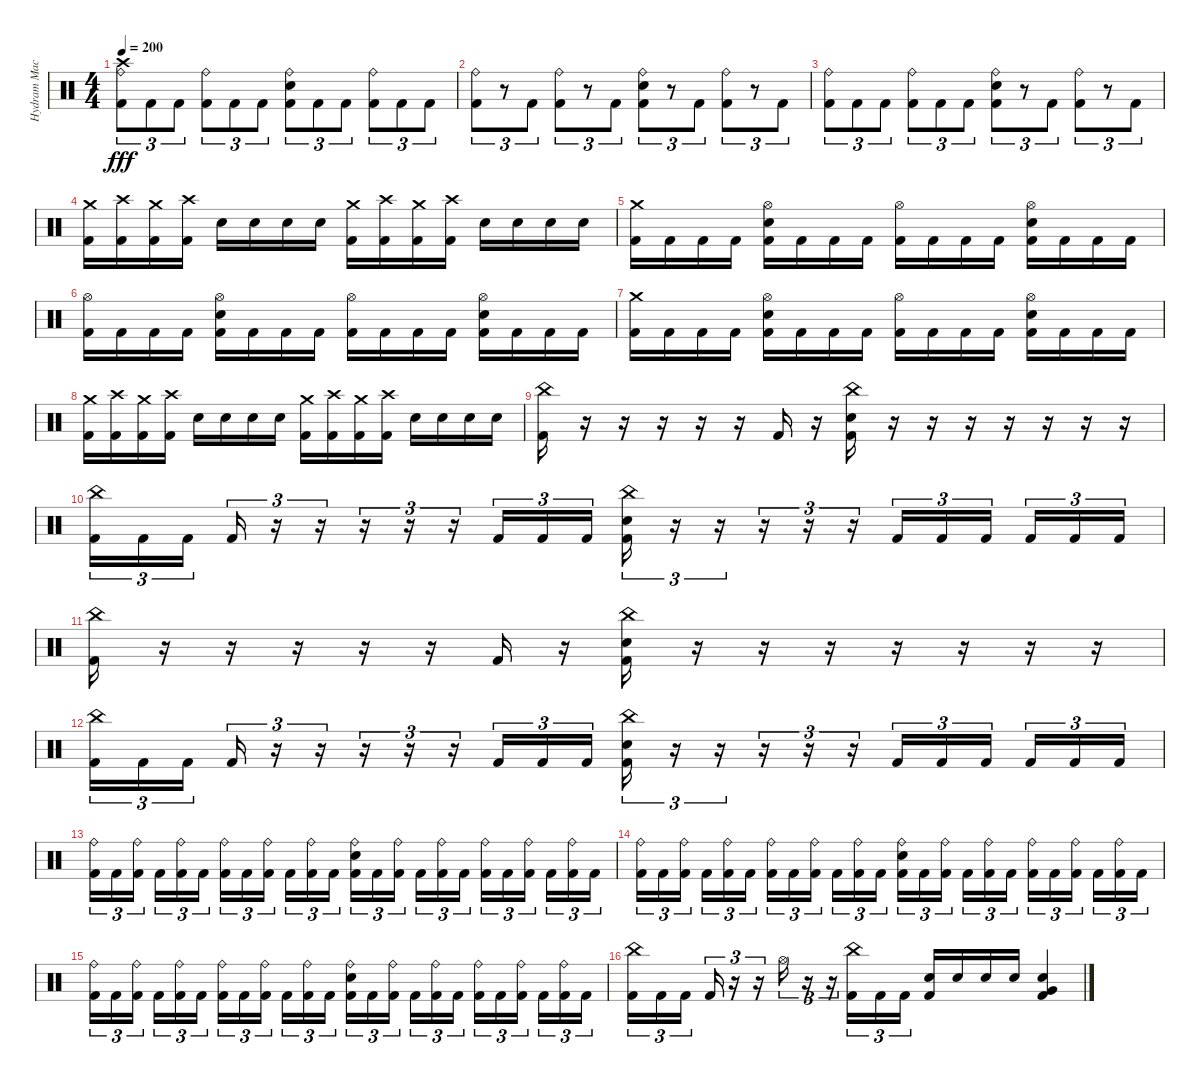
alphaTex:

\track ("Hydram Machine" "Hydram Mac") {instrument percussion}
\staff {score}
\articulation defaults
\ts (4 4)
\tempo 200
\clef neutral
\ks c
("Ride (bell)" "Crash high (hit)" "Kick (hit) 2").8{tu (3 2) dy fff} "Kick (hit) 2".8{tu (3 2)} "Kick (hit) 2".8{tu (3 2)} ("Ride (bell)" "Kick (hit) 2").8{tu (3 2)} "Kick (hit) 2".8{tu (3 2)} "Kick (hit) 2".8{tu (3 2)} ("Ride (bell)" "Electric Snare (hit)" "Kick (hit) 2").8{tu (3 2)} "Kick (hit) 2".8{tu (3 2)} "Kick (hit) 2".8{tu (3 2)} ("Ride (bell)" "Kick (hit) 2").8{tu (3 2)} "Kick (hit) 2".8{tu (3 2)} "Kick (hit) 2".8{tu (3 2)} |
("Ride (bell)" "Kick (hit) 2").8{tu (3 2)} r.8{tu (3 2)} "Kick (hit) 2".8{tu (3 2)} ("Ride (bell)" "Kick (hit) 2").8{tu (3 2)} r.8{tu (3 2)} "Kick (hit) 2".8{tu (3 2)} ("Ride (bell)" "Electric Snare (hit)" "Kick (hit) 2").8{tu (3 2)} r.8{tu (3 2)} "Kick (hit) 2".8{tu (3 2)} ("Ride (bell)" "Kick (hit) 2").8{tu (3 2)} r.8{tu (3 2)} "Kick (hit) 2".8{tu (3 2)} |
("Ride (bell)" "Kick (hit) 2").8{tu (3 2)} "Kick (hit) 2".8{tu (3 2)} "Kick (hit) 2".8{tu (3 2)} ("Ride (bell)" "Kick (hit) 2").8{tu (3 2)} "Kick (hit) 2".8{tu (3 2)} "Kick (hit) 2".8{tu (3 2)} ("Ride (bell)" "Electric Snare (hit)" "Kick (hit) 2").8{tu (3 2)} r.8{tu (3 2)} "Kick (hit) 2".8{tu (3 2)} ("Ride (bell)" "Kick (hit) 2").8{tu (3 2)} r.8{tu (3 2)} "Kick (hit) 2".8{tu (3 2)} |
("Crash medium (hit)" "Kick (hit) 2").16 ("Crash high (hit)" "Kick (hit) 2").16 ("Crash medium (hit)" "Kick (hit) 2").16 ("Crash high (hit)" "Kick (hit) 2").16 "Electric Snare (hit)".16 "Electric Snare (hit)".16 "Electric Snare (hit)".16 "Electric Snare (hit)".16 ("Crash medium (hit)" "Kick (hit) 2").16 ("Crash high (hit)" "Kick (hit) 2").16 ("Crash medium (hit)" "Kick (hit) 2").16 ("Crash high (hit)" "Kick (hit) 2").16 "Electric Snare (hit)".16 "Electric Snare (hit)".16 "Electric Snare (hit)".16 "Electric Snare (hit)".16 |
("Crash medium (hit)" "Kick (hit) 2").16 "Kick (hit) 2".16 "Kick (hit) 2".16 "Kick (hit) 2".16 ("Hi-Hat (open)" "Electric Snare (hit)" "Kick (hit) 2").16 "Kick (hit) 2".16 "Kick (hit) 2".16 "Kick (hit) 2".16 ("Hi-Hat (open)" "Kick (hit) 2").16 "Kick (hit) 2".16 "Kick (hit) 2".16 "Kick (hit) 2".16 ("Hi-Hat (open)" "Electric Snare (hit)" "Kick (hit) 2").16 "Kick (hit) 2".16 "Kick (hit) 2".16 "Kick (hit) 2".16 |
("Hi-Hat (open)" "Kick (hit) 2").16 "Kick (hit) 2".16 "Kick (hit) 2".16 "Kick (hit) 2".16 ("Hi-Hat (open)" "Electric Snare (hit)" "Kick (hit) 2").16 "Kick (hit) 2".16 "Kick (hit) 2".16 "Kick (hit) 2".16 ("Hi-Hat (open)" "Kick (hit) 2").16 "Kick (hit) 2".16 "Kick (hit) 2".16 "Kick (hit) 2".16 ("Hi-Hat (open)" "Electric Snare (hit)" "Kick (hit) 2").16 "Kick (hit) 2".16 "Kick (hit) 2".16 "Kick (hit) 2".16 |
("Crash medium (hit)" "Kick (hit) 2").16 "Kick (hit) 2".16 "Kick (hit) 2".16 "Kick (hit) 2".16 ("Hi-Hat (open)" "Electric Snare (hit)" "Kick (hit) 2").16 "Kick (hit) 2".16 "Kick (hit) 2".16 "Kick (hit) 2".16 ("Hi-Hat (open)" "Kick (hit) 2").16 "Kick (hit) 2".16 "Kick (hit) 2".16 "Kick (hit) 2".16 ("Hi-Hat (open)" "Electric Snare (hit)" "Kick (hit) 2").16 "Kick (hit) 2".16 "Kick (hit) 2".16 "Kick (hit) 2".16 |
("Crash medium (hit)" "Kick (hit) 2").16 ("Crash high (hit)" "Kick (hit) 2").16 ("Crash medium (hit)" "Kick (hit) 2").16 ("Crash high (hit)" "Kick (hit) 2").16 "Electric Snare (hit)".16 "Electric Snare (hit)".16 "Electric Snare (hit)".16 "Electric Snare (hit)".16 ("Crash medium (hit)" "Kick (hit) 2").16 ("Crash high (hit)" "Kick (hit) 2").16 ("Crash medium (hit)" "Kick (hit) 2").16 ("Crash high (hit)" "Kick (hit) 2").16 "Electric Snare (hit)".16 "Electric Snare (hit)".16 "Electric Snare (hit)".16 "Electric Snare (hit)".16 |
("China (hit)" "Kick (hit) 2").16 r.16 r.16 r.16 r.16 r.16 "Kick (hit) 2".16 r.16 ("China (hit)" "Electric Snare (hit)" "Kick (hit) 2").16 r.16 r.16 r.16 r.16 r.16 r.16 r.16 |
("China (hit)" "Kick (hit) 2").16{tu (3 2)} "Kick (hit) 2".16{tu (3 2)} "Kick (hit) 2".16{tu (3 2) beam splitsecondary} "Kick (hit) 2".16{tu (3 2)} r.16{tu (3 2)} r.16{tu (3 2)} r.16{tu (3 2)} r.16{tu (3 2)} r.16{tu (3 2)} "Kick (hit) 2".16{tu (3 2)} "Kick (hit) 2".16{tu (3 2)} "Kick (hit) 2".16{tu (3 2)} ("China (hit)" "Electric Snare (hit)" "Kick (hit) 2").16{tu (3 2)} r.16{tu (3 2)} r.16{tu (3 2)} r.16{tu (3 2)} r.16{tu (3 2)} r.16{tu (3 2)} "Kick (hit) 2".16{tu (3 2)} "Kick (hit) 2".16{tu (3 2)} "Kick (hit) 2".16{tu (3 2) beam splitsecondary} "Kick (hit) 2".16{tu (3 2)} "Kick (hit) 2".16{tu (3 2)} "Kick (hit) 2".16{tu (3 2)} |
("China (hit)" "Kick (hit) 2").16 r.16 r.16 r.16 r.16 r.16 "Kick (hit) 2".16 r.16 ("China (hit)" "Electric Snare (hit)" "Kick (hit) 2").16 r.16 r.16 r.16 r.16 r.16 r.16 r.16 |
("China (hit)" "Kick (hit) 2").16{tu (3 2)} "Kick (hit) 2".16{tu (3 2)} "Kick (hit) 2".16{tu (3 2) beam splitsecondary} "Kick (hit) 2".16{tu (3 2)} r.16{tu (3 2)} r.16{tu (3 2)} r.16{tu (3 2)} r.16{tu (3 2)} r.16{tu (3 2)} "Kick (hit) 2".16{tu (3 2)} "Kick (hit) 2".16{tu (3 2)} "Kick (hit) 2".16{tu (3 2)} ("China (hit)" "Electric Snare (hit)" "Kick (hit) 2").16{tu (3 2)} r.16{tu (3 2)} r.16{tu (3 2)} r.16{tu (3 2)} r.16{tu (3 2)} r.16{tu (3 2)} "Kick (hit) 2".16{tu (3 2)} "Kick (hit) 2".16{tu (3 2)} "Kick (hit) 2".16{tu (3 2) beam splitsecondary} "Kick (hit) 2".16{tu (3 2)} "Kick (hit) 2".16{tu (3 2)} "Kick (hit) 2".16{tu (3 2)} |
("Ride (bell)" "Kick (hit) 2").16{tu (3 2)} "Kick (hit) 2".16{tu (3 2)} ("Ride (bell)" "Kick (hit) 2").16{tu (3 2) beam splitsecondary} "Kick (hit) 2".16{tu (3 2)} ("Ride (bell)" "Kick (hit) 2").16{tu (3 2)} "Kick (hit) 2".16{tu (3 2)} ("Ride (bell)" "Kick (hit) 2").16{tu (3 2)} "Kick (hit) 2".16{tu (3 2)} ("Ride (bell)" "Kick (hit) 2").16{tu (3 2) beam splitsecondary} "Kick (hit) 2".16{tu (3 2)} ("Ride (bell)" "Kick (hit) 2").16{tu (3 2)} "Kick (hit) 2".16{tu (3 2)} ("Ride (bell)" "Electric Snare (hit)" "Kick (hit) 2").16{tu (3 2)} "Kick (hit) 2".16{tu (3 2)} ("Ride (bell)" "Kick (hit) 2").16{tu (3 2) beam splitsecondary} "Kick (hit) 2".16{tu (3 2)} ("Ride (bell)" "Kick (hit) 2").16{tu (3 2)} "Kick (hit) 2".16{tu (3 2)} ("Ride (bell)" "Kick (hit) 2").16{tu (3 2)} "Kick (hit) 2".16{tu (3 2)} ("Ride (bell)" "Kick (hit) 2").16{tu (3 2) beam splitsecondary} "Kick (hit) 2".16{tu (3 2)} ("Ride (bell)" "Kick (hit) 2").16{tu (3 2)} "Kick (hit) 2".16{tu (3 2)} |
("Ride (bell)" "Kick (hit) 2").16{tu (3 2)} "Kick (hit) 2".16{tu (3 2)} ("Ride (bell)" "Kick (hit) 2").16{tu (3 2) beam splitsecondary} "Kick (hit) 2".16{tu (3 2)} ("Ride (bell)" "Kick (hit) 2").16{tu (3 2)} "Kick (hit) 2".16{tu (3 2)} ("Ride (bell)" "Kick (hit) 2").16{tu (3 2)} "Kick (hit) 2".16{tu (3 2)} ("Ride (bell)" "Kick (hit) 2").16{tu (3 2) beam splitsecondary} "Kick (hit) 2".16{tu (3 2)} ("Ride (bell)" "Kick (hit) 2").16{tu (3 2)} "Kick (hit) 2".16{tu (3 2)} ("Ride (bell)" "Electric Snare (hit)" "Kick (hit) 2").16{tu (3 2)} "Kick (hit) 2".16{tu (3 2)} ("Ride (bell)" "Kick (hit) 2").16{tu (3 2) beam splitsecondary} "Kick (hit) 2".16{tu (3 2)} ("Ride (bell)" "Kick (hit) 2").16{tu (3 2)} "Kick (hit) 2".16{tu (3 2)} ("Ride (bell)" "Kick (hit) 2").16{tu (3 2)} "Kick (hit) 2".16{tu (3 2)} ("Ride (bell)" "Kick (hit) 2").16{tu (3 2) beam splitsecondary} "Kick (hit) 2".16{tu (3 2)} ("Ride (bell)" "Kick (hit) 2").16{tu (3 2)} "Kick (hit) 2".16{tu (3 2)} |
("Ride (bell)" "Kick (hit) 2").16{tu (3 2)} "Kick (hit) 2".16{tu (3 2)} ("Ride (bell)" "Kick (hit) 2").16{tu (3 2) beam splitsecondary} "Kick (hit) 2".16{tu (3 2)} ("Ride (bell)" "Kick (hit) 2").16{tu (3 2)} "Kick (hit) 2".16{tu (3 2)} ("Ride (bell)" "Kick (hit) 2").16{tu (3 2)} "Kick (hit) 2".16{tu (3 2)} ("Ride (bell)" "Kick (hit) 2").16{tu (3 2) beam splitsecondary} "Kick (hit) 2".16{tu (3 2)} ("Ride (bell)" "Kick (hit) 2").16{tu (3 2)} "Kick (hit) 2".16{tu (3 2)} ("Ride (bell)" "Electric Snare (hit)" "Kick (hit) 2").16{tu (3 2)} "Kick (hit) 2".16{tu (3 2)} ("Ride (bell)" "Kick (hit) 2").16{tu (3 2) beam splitsecondary} "Kick (hit) 2".16{tu (3 2)} ("Ride (bell)" "Kick (hit) 2").16{tu (3 2)} "Kick (hit) 2".16{tu (3 2)} ("Ride (bell)" "Kick (hit) 2").16{tu (3 2)} "Kick (hit) 2".16{tu (3 2)} ("Ride (bell)" "Kick (hit) 2").16{tu (3 2) beam splitsecondary} "Kick (hit) 2".16{tu (3 2)} ("Ride (bell)" "Kick (hit) 2").16{tu (3 2)} "Kick (hit) 2".16{tu (3 2)} |
("China (hit)" "Kick (hit) 2").16{tu (3 2)} "Kick (hit) 2".16{tu (3 2)} "Kick (hit) 2".16{tu (3 2) beam splitsecondary} "Kick (hit) 2".16{tu (3 2)} r.16{tu (3 2)} r.16{tu (3 2)} "Hi-Hat (open)".16{tu (3 2)} r.16{tu (3 2)} r.16{tu (3 2)} ("China (hit)" "Kick (hit) 2").16{tu (3 2)} "Kick (hit) 2".16{tu (3 2)} "Kick (hit) 2".16{tu (3 2)} ("Electric Snare (hit)" "Kick (hit) 2").16 "Electric Snare (hit)".16 "Electric Snare (hit)".16 "Electric Snare (hit)".16 ("Very Low Tom (hit)" "Electric Snare (hit)" "Kick (hit) 2").4
